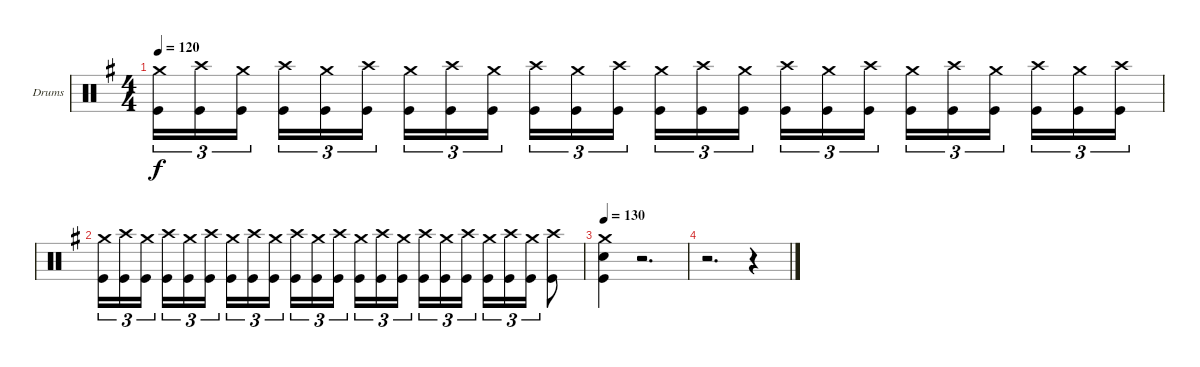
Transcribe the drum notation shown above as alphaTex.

\bracketExtendMode groupsimilarinstruments
\firstSystemTrackNameOrientation horizontal
\otherSystemsTrackNameOrientation horizontal
\track ("Drumkit" "Drums") {instrument percussion}
\staff {score}
\articulation defaults
\ts (4 4)
\tempo 120
\clef neutral
\ks g
("Crash medium (hit)" "Kick (hit)").16{tu (3 2) dy f} ("Crash high (hit)" "Kick (hit)").16{tu (3 2)} ("Crash medium (hit)" "Kick (hit)").16{tu (3 2)} ("Crash high (hit)" "Kick (hit)").16{tu (3 2)} ("Crash medium (hit)" "Kick (hit)").16{tu (3 2)} ("Crash high (hit)" "Kick (hit)").16{tu (3 2)} ("Crash medium (hit)" "Kick (hit)").16{tu (3 2)} ("Crash high (hit)" "Kick (hit)").16{tu (3 2)} ("Crash medium (hit)" "Kick (hit)").16{tu (3 2)} ("Crash high (hit)" "Kick (hit)").16{tu (3 2)} ("Crash medium (hit)" "Kick (hit)").16{tu (3 2)} ("Crash high (hit)" "Kick (hit)").16{tu (3 2)} ("Crash medium (hit)" "Kick (hit)").16{tu (3 2)} ("Crash high (hit)" "Kick (hit)").16{tu (3 2)} ("Crash medium (hit)" "Kick (hit)").16{tu (3 2)} ("Crash high (hit)" "Kick (hit)").16{tu (3 2)} ("Crash medium (hit)" "Kick (hit)").16{tu (3 2)} ("Crash high (hit)" "Kick (hit)").16{tu (3 2)} ("Crash medium (hit)" "Kick (hit)").16{tu (3 2)} ("Crash high (hit)" "Kick (hit)").16{tu (3 2)} ("Crash medium (hit)" "Kick (hit)").16{tu (3 2)} ("Crash high (hit)" "Kick (hit)").16{tu (3 2)} ("Crash medium (hit)" "Kick (hit)").16{tu (3 2)} ("Crash high (hit)" "Kick (hit)").16{tu (3 2)} |
("Crash medium (hit)" "Kick (hit)").16{tu (3 2)} ("Crash high (hit)" "Kick (hit)").16{tu (3 2)} ("Crash medium (hit)" "Kick (hit)").16{tu (3 2)} ("Crash high (hit)" "Kick (hit)").16{tu (3 2)} ("Crash medium (hit)" "Kick (hit)").16{tu (3 2)} ("Crash high (hit)" "Kick (hit)").16{tu (3 2)} ("Crash medium (hit)" "Kick (hit)").16{tu (3 2)} ("Crash high (hit)" "Kick (hit)").16{tu (3 2)} ("Crash medium (hit)" "Kick (hit)").16{tu (3 2)} ("Crash high (hit)" "Kick (hit)").16{tu (3 2)} ("Crash medium (hit)" "Kick (hit)").16{tu (3 2)} ("Crash high (hit)" "Kick (hit)").16{tu (3 2)} ("Crash medium (hit)" "Kick (hit)").16{tu (3 2)} ("Crash high (hit)" "Kick (hit)").16{tu (3 2)} ("Crash medium (hit)" "Kick (hit)").16{tu (3 2)} ("Crash high (hit)" "Kick (hit)").16{tu (3 2)} ("Crash medium (hit)" "Kick (hit)").16{tu (3 2)} ("Crash high (hit)" "Kick (hit)").16{tu (3 2)} ("Crash medium (hit)" "Kick (hit)").16{tu (3 2)} ("Crash high (hit)" "Kick (hit)").16{tu (3 2)} ("Crash medium (hit)" "Kick (hit)").16{tu (3 2)} ("Crash high (hit)" "Kick (hit)").8 |
\tempo 130
("Crash medium (hit)" "Snare (hit) 2" "Kick (hit)").4 r.2{d} |
r.2{d} r.4
